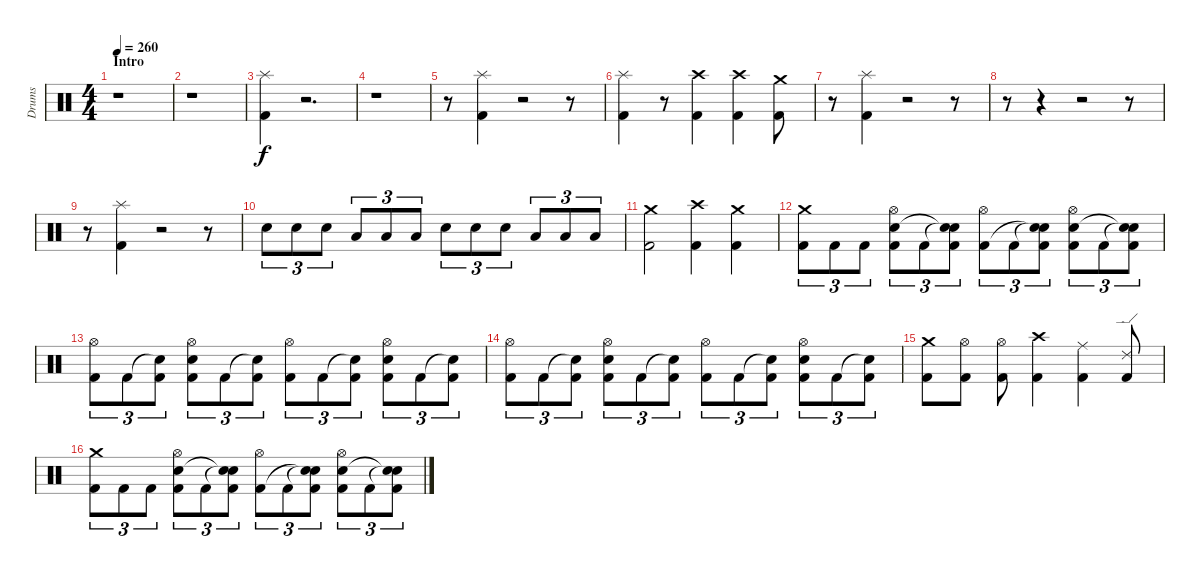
\track ("Drums" "Drums") {instrument percussion}
\staff {score}
\articulation defaults
\ts (4 4)
\section ("" "Intro")
\tempo 260
\clef neutral
\ks c
r.1{dy f} |
r.1 |
("Splash (hit)" "Kick (hit) 2").4 r.2{d} |
r.1 |
r.8 ("Splash (hit)" "Kick (hit) 2").4 r.2 r.8 |
("Splash (hit)" "Kick (hit) 2").4 r.8 ("Crash high (hit)" "Kick (hit) 2").4 ("Crash high (hit)" "Kick (hit) 2").4 ("Crash medium (hit)" "Kick (hit) 2").8 |
r.8 ("Splash (hit)" "Kick (hit) 2").4 r.2 r.8 |
r.8 r.4 r.2 r.8 |
r.8 ("Splash (hit)" "Kick (hit) 2").4 r.2 r.8 |
"Electric Snare (hit)".8{tu (3 2)} "Electric Snare (hit)".8{tu (3 2)} "Electric Snare (hit)".8{tu (3 2)} "Low Tom (hit)".8{tu (3 2)} "Low Tom (hit)".8{tu (3 2)} "Low Tom (hit)".8{tu (3 2)} "Electric Snare (hit)".8{tu (3 2)} "Electric Snare (hit)".8{tu (3 2)} "Electric Snare (hit)".8{tu (3 2)} "Low Tom (hit)".8{tu (3 2)} "Low Tom (hit)".8{tu (3 2)} "Low Tom (hit)".8{tu (3 2)} |
("Crash medium (hit)" "Kick (hit) 2").2 ("Crash high (hit)" "Kick (hit) 2").4 ("Crash medium (hit)" "Kick (hit) 2").4 |
("Crash medium (hit)" "Kick (hit) 2").8{tu (3 2)} "Kick (hit) 2".8{tu (3 2)} "Kick (hit) 2".8{tu (3 2)} ("Hi-Hat (open)" "Electric Snare (hit)" "Kick (hit) 2").8{tu (3 2)} "Kick (hit) 2".8{tu (3 2)} ("Snare (hit)"{t} "Snare (hit)"{t} "Kick (hit) 2").8{tu (3 2)} ("Hi-Hat (open)" "Kick (hit) 2").8{tu (3 2)} "Kick (hit) 2".8{tu (3 2)} ("Snare (hit)"{t} "Snare (hit)"{t} "Kick (hit) 2").8{tu (3 2)} ("Hi-Hat (open)" "Electric Snare (hit)" "Kick (hit) 2").8{tu (3 2)} "Kick (hit) 2".8{tu (3 2)} ("Snare (hit)"{t} "Snare (hit)"{t} "Kick (hit) 2").8{tu (3 2)} |
("Hi-Hat (open)" "Kick (hit) 2").8{tu (3 2)} "Kick (hit) 2".8{tu (3 2)} ("Snare (hit)"{t} "Kick (hit) 2").8{tu (3 2)} ("Hi-Hat (open)" "Electric Snare (hit)" "Kick (hit) 2").8{tu (3 2)} "Kick (hit) 2".8{tu (3 2)} ("Snare (hit)"{t} "Kick (hit) 2").8{tu (3 2)} ("Hi-Hat (open)" "Kick (hit) 2").8{tu (3 2)} "Kick (hit) 2".8{tu (3 2)} ("Snare (hit)"{t} "Kick (hit) 2").8{tu (3 2)} ("Hi-Hat (open)" "Electric Snare (hit)" "Kick (hit) 2").8{tu (3 2)} "Kick (hit) 2".8{tu (3 2)} ("Snare (hit)"{t} "Kick (hit) 2").8{tu (3 2)} |
("Hi-Hat (open)" "Kick (hit) 2").8{tu (3 2)} "Kick (hit) 2".8{tu (3 2)} ("Snare (hit)"{t} "Kick (hit) 2").8{tu (3 2)} ("Hi-Hat (open)" "Electric Snare (hit)" "Kick (hit) 2").8{tu (3 2)} "Kick (hit) 2".8{tu (3 2)} ("Snare (hit)"{t} "Kick (hit) 2").8{tu (3 2)} ("Hi-Hat (open)" "Kick (hit) 2").8{tu (3 2)} "Kick (hit) 2".8{tu (3 2)} ("Snare (hit)"{t} "Kick (hit) 2").8{tu (3 2)} ("Hi-Hat (open)" "Electric Snare (hit)" "Kick (hit) 2").8{tu (3 2)} "Kick (hit) 2".8{tu (3 2)} ("Snare (hit)"{t} "Kick (hit) 2").8{tu (3 2)} |
("Crash medium (hit)" "Kick (hit) 2").8 ("Hi-Hat (open)" "Kick (hit) 2").8 ("Hi-Hat (open)" "Kick (hit) 2").8 ("Crash high (hit)" "Kick (hit) 2").4 ("Ride (middle)" "Kick (hit) 2").4 ("Ride (edge) 2" "Kick (hit) 2").8 |
("Crash medium (hit)" "Kick (hit) 2").8{tu (3 2)} "Kick (hit) 2".8{tu (3 2)} "Kick (hit) 2".8{tu (3 2)} ("Hi-Hat (open)" "Electric Snare (hit)" "Kick (hit) 2").8{tu (3 2)} "Kick (hit) 2".8{tu (3 2)} ("Snare (hit)"{t} "Snare (hit)"{t} "Kick (hit) 2").8{tu (3 2)} ("Hi-Hat (open)" "Kick (hit) 2").8{tu (3 2)} "Kick (hit) 2".8{tu (3 2)} ("Snare (hit)"{t} "Snare (hit)"{t} "Kick (hit) 2").8{tu (3 2)} ("Hi-Hat (open)" "Electric Snare (hit)" "Kick (hit) 2").8{tu (3 2)} "Kick (hit) 2".8{tu (3 2)} ("Snare (hit)"{t} "Snare (hit)"{t} "Kick (hit) 2").8{tu (3 2)}
